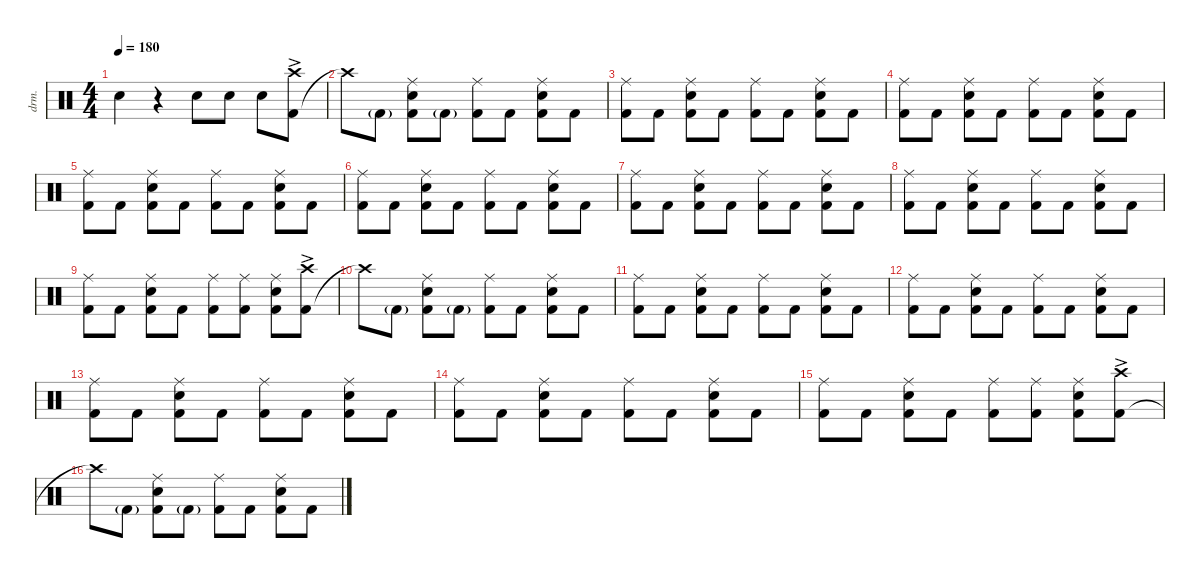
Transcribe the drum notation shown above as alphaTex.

\defaultSystemsLayout 4
\hideDynamics
\bracketExtendMode nobrackets
\otherSystemsTrackNameOrientation horizontal
\track ("Drum" "drm.") {instrument percussion}
\staff {score}
\articulation defaults
\ts (4 4)
\tempo 180
\clef neutral
\ks c "Snare (hit) 2".4{dy f beam Down}
r.4{beam Down} "Snare (hit) 2".8{beam Down} "Snare (hit) 2".8{beam Down} "Snare (hit) 2".8{beam Down} ("Kick (hit) 2"{ac} "Crash high (hit)"{ac}).8{beam Down} |
"Crash high (hit)"{t}.8{beam Down} "Kick (hit) 2"{g}.8{beam Down} ("Snare (hit) 2" "Ride (middle)" "Kick (hit) 2").8{beam Down} "Kick (hit) 2"{g}.8{beam Down} ("Kick (hit) 2" "Ride (middle)").8{beam Down} "Kick (hit) 2".8{beam Down} ("Kick (hit) 2" "Snare (hit) 2" "Ride (middle)").8{beam Down} "Kick (hit) 2".8{beam Down} |
("Kick (hit) 2" "Ride (middle)").8{beam Down} "Kick (hit) 2".8{beam Down} ("Kick (hit) 2" "Snare (hit) 2" "Ride (middle)").8{beam Down} "Kick (hit) 2".8{beam Down} ("Kick (hit) 2" "Ride (middle)").8{beam Down} "Kick (hit) 2".8{beam Down} ("Kick (hit) 2" "Snare (hit) 2" "Ride (middle)").8{beam Down} "Kick (hit) 2".8{beam Down} |
("Kick (hit) 2" "Ride (middle)").8{beam Down} "Kick (hit) 2".8{beam Down} ("Kick (hit) 2" "Snare (hit) 2" "Ride (middle)").8{beam Down} "Kick (hit) 2".8{beam Down} ("Kick (hit) 2" "Ride (middle)").8{beam Down} "Kick (hit) 2".8{beam Down} ("Kick (hit) 2" "Snare (hit) 2" "Ride (middle)").8{beam Down} "Kick (hit) 2".8{beam Down} |
("Kick (hit) 2" "Ride (middle)").8{beam Down} "Kick (hit) 2".8{beam Down} ("Kick (hit) 2" "Snare (hit) 2" "Ride (middle)").8{beam Down} "Kick (hit) 2".8{beam Down} ("Kick (hit) 2" "Ride (middle)").8{beam Down} "Kick (hit) 2".8{beam Down} ("Kick (hit) 2" "Snare (hit) 2" "Ride (middle)").8{beam Down} "Kick (hit) 2".8{beam Down} |
("Kick (hit) 2" "Ride (middle)").8{beam Down} "Kick (hit) 2".8{beam Down} ("Kick (hit) 2" "Snare (hit) 2" "Ride (middle)").8{beam Down} "Kick (hit) 2".8{beam Down} ("Kick (hit) 2" "Ride (middle)").8{beam Down} "Kick (hit) 2".8{beam Down} ("Kick (hit) 2" "Snare (hit) 2" "Ride (middle)").8{beam Down} "Kick (hit) 2".8{beam Down} |
("Kick (hit) 2" "Ride (middle)").8{beam Down} "Kick (hit) 2".8{beam Down} ("Kick (hit) 2" "Snare (hit) 2" "Ride (middle)").8{beam Down} "Kick (hit) 2".8{beam Down} ("Kick (hit) 2" "Ride (middle)").8{beam Down} "Kick (hit) 2".8{beam Down} ("Kick (hit) 2" "Snare (hit) 2" "Ride (middle)").8{beam Down} "Kick (hit) 2".8{beam Down} |
("Kick (hit) 2" "Ride (middle)").8{beam Down} "Kick (hit) 2".8{beam Down} ("Kick (hit) 2" "Snare (hit) 2" "Ride (middle)").8{beam Down} "Kick (hit) 2".8{beam Down} ("Kick (hit) 2" "Ride (middle)").8{beam Down} "Kick (hit) 2".8{beam Down} ("Kick (hit) 2" "Snare (hit) 2" "Ride (middle)").8{beam Down} "Kick (hit) 2".8{beam Down} |
("Kick (hit) 2" "Ride (middle)").8{beam Down} "Kick (hit) 2".8{beam Down} ("Kick (hit) 2" "Snare (hit) 2" "Ride (middle)").8{beam Down} "Kick (hit) 2".8{beam Down} ("Kick (hit) 2" "Ride (middle)").8{beam Down} ("Kick (hit) 2" "Ride (middle)").8{beam Down} ("Kick (hit) 2" "Snare (hit) 2" "Ride (middle)").8{beam Down} ("Kick (hit) 2"{ac} "Crash high (hit)"{ac}).8{beam Down} |
"Crash high (hit)"{t}.8{beam Down} "Kick (hit) 2"{g}.8{beam Down} ("Snare (hit) 2" "Ride (middle)" "Kick (hit) 2").8{beam Down} "Kick (hit) 2"{g}.8{beam Down} ("Kick (hit) 2" "Ride (middle)").8{beam Down} "Kick (hit) 2".8{beam Down} ("Kick (hit) 2" "Snare (hit) 2" "Ride (middle)").8{beam Down} "Kick (hit) 2".8{beam Down} |
("Kick (hit) 2" "Ride (middle)").8{beam Down} "Kick (hit) 2".8{beam Down} ("Kick (hit) 2" "Snare (hit) 2" "Ride (middle)").8{beam Down} "Kick (hit) 2".8{beam Down} ("Kick (hit) 2" "Ride (middle)").8{beam Down} "Kick (hit) 2".8{beam Down} ("Kick (hit) 2" "Snare (hit) 2" "Ride (middle)").8{beam Down} "Kick (hit) 2".8{beam Down} |
("Kick (hit) 2" "Ride (middle)").8{beam Down} "Kick (hit) 2".8{beam Down} ("Kick (hit) 2" "Snare (hit) 2" "Ride (middle)").8{beam Down} "Kick (hit) 2".8{beam Down} ("Kick (hit) 2" "Ride (middle)").8{beam Down} "Kick (hit) 2".8{beam Down} ("Kick (hit) 2" "Snare (hit) 2" "Ride (middle)").8{beam Down} "Kick (hit) 2".8{beam Down} |
("Kick (hit) 2" "Ride (middle)").8{beam Down} "Kick (hit) 2".8{beam Down} ("Kick (hit) 2" "Snare (hit) 2" "Ride (middle)").8{beam Down} "Kick (hit) 2".8{beam Down} ("Kick (hit) 2" "Ride (middle)").8{beam Down} "Kick (hit) 2".8{beam Down} ("Kick (hit) 2" "Snare (hit) 2" "Ride (middle)").8{beam Down} "Kick (hit) 2".8{beam Down} |
("Kick (hit) 2" "Ride (middle)").8{beam Down} "Kick (hit) 2".8{beam Down} ("Kick (hit) 2" "Snare (hit) 2" "Ride (middle)").8{beam Down} "Kick (hit) 2".8{beam Down} ("Kick (hit) 2" "Ride (middle)").8{beam Down} "Kick (hit) 2".8{beam Down} ("Kick (hit) 2" "Snare (hit) 2" "Ride (middle)").8{beam Down} "Kick (hit) 2".8{beam Down} |
("Kick (hit) 2" "Ride (middle)").8{beam Down} "Kick (hit) 2".8{beam Down} ("Kick (hit) 2" "Snare (hit) 2" "Ride (middle)").8{beam Down} "Kick (hit) 2".8{beam Down} ("Kick (hit) 2" "Ride (middle)").8{beam Down} ("Kick (hit) 2" "Ride (middle)").8{beam Down} ("Kick (hit) 2" "Snare (hit) 2" "Ride (middle)").8{beam Down} ("Kick (hit) 2"{ac} "Crash high (hit)"{ac}).8{beam Down} |
"Crash high (hit)"{t}.8{beam Down} "Kick (hit) 2"{g}.8{beam Down} ("Snare (hit) 2" "Ride (middle)" "Kick (hit) 2").8{beam Down} "Kick (hit) 2"{g}.8{beam Down} ("Kick (hit) 2" "Ride (middle)").8{beam Down} "Kick (hit) 2".8{beam Down} ("Kick (hit) 2" "Snare (hit) 2" "Ride (middle)").8{beam Down} "Kick (hit) 2".8{beam Down}
